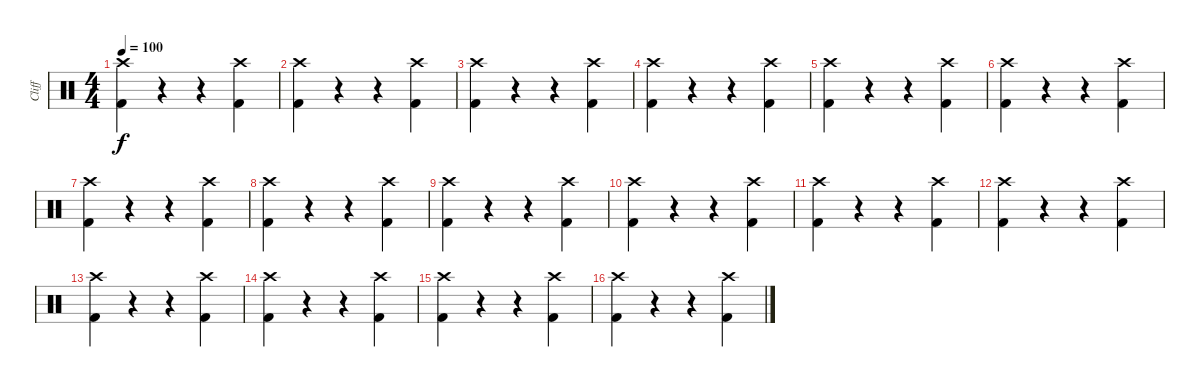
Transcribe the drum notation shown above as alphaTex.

\track ("Cliff " "Cliff ") {instrument percussion}
\staff {score}
\articulation defaults
\ts (4 4)
\tempo 100
\clef neutral
\ks c
("Crash high (hit)" "Kick (hit) 2").4{dy f} r.4 r.4 ("Crash high (hit)" "Kick (hit) 2").4 |
("Crash high (hit)" "Kick (hit) 2").4 r.4 r.4 ("Crash high (hit)" "Kick (hit) 2").4 |
("Crash high (hit)" "Kick (hit) 2").4 r.4 r.4 ("Crash high (hit)" "Kick (hit) 2").4 |
("Crash high (hit)" "Kick (hit) 2").4 r.4 r.4 ("Crash high (hit)" "Kick (hit) 2").4 |
("Crash high (hit)" "Kick (hit) 2").4 r.4 r.4 ("Crash high (hit)" "Kick (hit) 2").4 |
("Crash high (hit)" "Kick (hit) 2").4 r.4 r.4 ("Crash high (hit)" "Kick (hit) 2").4 |
("Crash high (hit)" "Kick (hit) 2").4 r.4 r.4 ("Crash high (hit)" "Kick (hit) 2").4 |
("Crash high (hit)" "Kick (hit) 2").4 r.4 r.4 ("Crash high (hit)" "Kick (hit) 2").4 |
("Crash high (hit)" "Kick (hit) 2").4 r.4 r.4 ("Crash high (hit)" "Kick (hit) 2").4 |
("Crash high (hit)" "Kick (hit) 2").4 r.4 r.4 ("Crash high (hit)" "Kick (hit) 2").4 |
("Crash high (hit)" "Kick (hit) 2").4 r.4 r.4 ("Crash high (hit)" "Kick (hit) 2").4 |
("Crash high (hit)" "Kick (hit) 2").4 r.4 r.4 ("Crash high (hit)" "Kick (hit) 2").4 |
("Crash high (hit)" "Kick (hit) 2").4 r.4 r.4 ("Crash high (hit)" "Kick (hit) 2").4 |
("Crash high (hit)" "Kick (hit) 2").4 r.4 r.4 ("Crash high (hit)" "Kick (hit) 2").4 |
("Crash high (hit)" "Kick (hit) 2").4 r.4 r.4 ("Crash high (hit)" "Kick (hit) 2").4 |
("Crash high (hit)" "Kick (hit) 2").4 r.4 r.4 ("Crash high (hit)" "Kick (hit) 2").4
